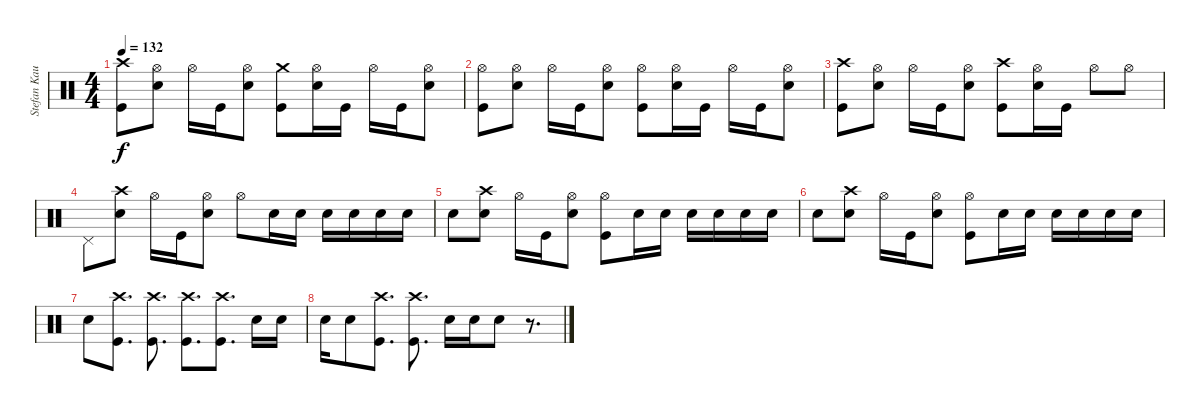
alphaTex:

\track ("Stefan Kaufmann" "Stefan Kau") {instrument percussion}
\staff {score}
\articulation defaults
\ts (4 4)
\tempo 132
\clef neutral
\ks c
("Crash high (hit)" "Kick (hit)").8{dy f} ("Hi-Hat (open)" "Snare (hit) 2").8 "Hi-Hat (open)".16 "Kick (hit)".16 ("Hi-Hat (open)" "Snare (hit) 2").8 ("Crash medium (hit)" "Kick (hit)").8 ("Hi-Hat (open)" "Snare (hit) 2").16 "Kick (hit)".16 "Hi-Hat (open)".16 "Kick (hit)".16 ("Hi-Hat (open)" "Snare (hit) 2").8 |
("Hi-Hat (open)" "Kick (hit)").8 ("Hi-Hat (open)" "Snare (hit) 2").8 "Hi-Hat (open)".16 "Kick (hit)".16 ("Hi-Hat (open)" "Snare (hit) 2").8 ("Hi-Hat (open)" "Kick (hit)").8 ("Hi-Hat (open)" "Snare (hit) 2").16 "Kick (hit)".16 "Hi-Hat (open)".16 "Kick (hit)".16 ("Hi-Hat (open)" "Snare (hit) 2").8 |
("Crash high (hit)" "Kick (hit)").8 ("Hi-Hat (open)" "Snare (hit) 2").8 "Hi-Hat (open)".16 "Kick (hit)".16 ("Hi-Hat (open)" "Snare (hit) 2").8 ("Crash high (hit)" "Kick (hit)").8 ("Hi-Hat (open)" "Snare (hit) 2").16 "Kick (hit)".16 "Hi-Hat (open)".8 "Hi-Hat (open)".8 |
"Pedal Hi-Hat (hit)".8 ("Crash high (hit)" "Snare (hit) 2").8 "Hi-Hat (open)".16 "Kick (hit)".16 ("Hi-Hat (open)" "Snare (hit) 2").8 "Hi-Hat (open)".8 "Snare (hit) 2".16 "Snare (hit) 2".16 "Snare (hit) 2".16 "Snare (hit) 2".16 "Snare (hit) 2".16 "Snare (hit) 2".16 |
"Snare (hit) 2".8 ("Crash high (hit)" "Snare (hit) 2").8 "Hi-Hat (open)".16 "Kick (hit)".16 ("Hi-Hat (open)" "Snare (hit) 2").8 ("Hi-Hat (open)" "Kick (hit)").8 "Snare (hit) 2".16 "Snare (hit) 2".16 "Snare (hit) 2".16 "Snare (hit) 2".16 "Snare (hit) 2".16 "Snare (hit) 2".16 |
"Snare (hit) 2".8 ("Crash high (hit)" "Snare (hit) 2").8 "Hi-Hat (open)".16 "Kick (hit)".16 ("Hi-Hat (open)" "Snare (hit) 2").8 ("Hi-Hat (open)" "Kick (hit)").8 "Snare (hit) 2".16 "Snare (hit) 2".16 "Snare (hit) 2".16 "Snare (hit) 2".16 "Snare (hit) 2".16 "Snare (hit) 2".16 |
"Snare (hit) 2".8 ("Crash high (hit)" "Kick (hit)").8{d} ("Crash high (hit)" "Kick (hit)").8{d} ("Crash high (hit)" "Kick (hit)").8{d} ("Crash high (hit)" "Kick (hit)").8{d} "Snare (hit) 2".16 "Snare (hit) 2".16 |
"Snare (hit) 2".16 "Snare (hit) 2".8 ("Crash high (hit)" "Kick (hit)").8{d} ("Crash high (hit)" "Kick (hit)").8{d} "Snare (hit) 2".16 "Snare (hit) 2".16 "Snare (hit) 2".8 r.8{d}
